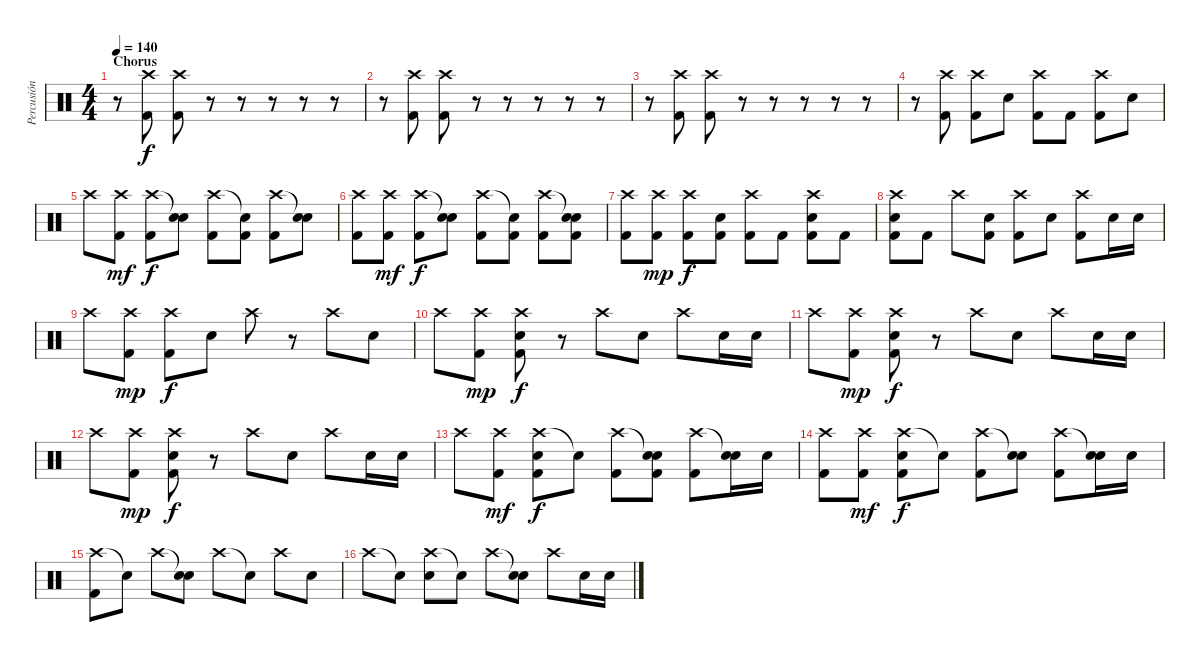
\track ("Percusión" "Percusión") {instrument percussion}
\staff {score}
\articulation defaults
\ts (4 4)
\section ("" "Chorus")
\tempo 140
\clef neutral
\ks c
r.8{dy f} ("Crash high (hit)" "Kick (hit) 2").8 ("Crash high (hit)" "Kick (hit) 2").8 r.8 r.8 r.8 r.8 r.8 |
r.8 ("Crash high (hit)" "Kick (hit) 2").8 ("Crash high (hit)" "Kick (hit) 2").8 r.8 r.8 r.8 r.8 r.8 |
r.8 ("Crash high (hit)" "Kick (hit) 2").8 ("Crash high (hit)" "Kick (hit) 2").8 r.8 r.8 r.8 r.8 r.8 |
r.8 ("Crash high (hit)" "Kick (hit) 2").8 ("Crash high (hit)" "Kick (hit) 2").8 "Electric Snare (hit)".8 ("Crash high (hit)" "Kick (hit) 2").8 "Kick (hit) 2".8 ("Crash high (hit)" "Kick (hit) 2").8 "Electric Snare (hit)".8 |
"Crash high (hit)".8 ("Crash high (hit)" "Kick (hit) 2").8{dy mf} ("Crash high (hit)" "Kick (hit) 2").8{dy f} ("Snare (hit)"{t} "Electric Snare (hit)").8 ("Crash high (hit)" "Kick (hit) 2").8 ("Snare (hit)"{t} "Kick (hit) 2").8 ("Crash high (hit)" "Kick (hit) 2").8 ("Snare (hit)"{t} "Electric Snare (hit)").8 |
("Crash high (hit)" "Kick (hit) 2").8 ("Crash high (hit)" "Kick (hit) 2").8{dy mf} ("Crash high (hit)" "Kick (hit) 2").8{dy f} ("Snare (hit)"{t} "Electric Snare (hit)").8 ("Crash high (hit)" "Kick (hit) 2").8 ("Snare (hit)"{t} "Kick (hit) 2").8 ("Crash high (hit)" "Kick (hit) 2").8 ("Snare (hit)"{t} "Electric Snare (hit)" "Kick (hit) 2").8 |
("Crash high (hit)" "Kick (hit) 2").8 ("Crash high (hit)" "Kick (hit) 2").8{dy mp} ("Crash high (hit)" "Kick (hit) 2").8{dy f} ("Electric Snare (hit)" "Kick (hit) 2").8 ("Crash high (hit)" "Kick (hit) 2").8 "Kick (hit) 2".8 ("Crash high (hit)" "Electric Snare (hit)" "Kick (hit) 2").8 "Kick (hit) 2".8 |
("Crash high (hit)" "Electric Snare (hit)" "Kick (hit) 2").8 "Kick (hit) 2".8 "Crash high (hit)".8 ("Electric Snare (hit)" "Kick (hit) 2").8 ("Crash high (hit)" "Kick (hit) 2").8 "Electric Snare (hit)".8 ("Crash high (hit)" "Kick (hit) 2").8 "Electric Snare (hit)".16 "Electric Snare (hit)".16 |
"Crash high (hit)".8 ("Crash high (hit)" "Kick (hit) 2").8{dy mp} ("Crash high (hit)" "Kick (hit) 2").8{dy f} "Electric Snare (hit)".8 "Crash high (hit)".8 r.8 "Crash high (hit)".8 "Electric Snare (hit)".8 |
"Crash high (hit)".8 ("Crash high (hit)" "Kick (hit) 2").8{dy mp} ("Crash high (hit)" "Electric Snare (hit)" "Kick (hit) 2").8{dy f} r.8 "Crash high (hit)".8 "Electric Snare (hit)".8 "Crash high (hit)".8 "Electric Snare (hit)".16 "Electric Snare (hit)".16 |
"Crash high (hit)".8 ("Crash high (hit)" "Kick (hit) 2").8{dy mp} ("Crash high (hit)" "Electric Snare (hit)" "Kick (hit) 2").8{dy f} r.8 "Crash high (hit)".8 "Electric Snare (hit)".8 "Crash high (hit)".8 "Electric Snare (hit)".16 "Electric Snare (hit)".16 |
"Crash high (hit)".8 ("Crash high (hit)" "Kick (hit) 2").8{dy mp} ("Crash high (hit)" "Electric Snare (hit)" "Kick (hit) 2").8{dy f} r.8 "Crash high (hit)".8 "Electric Snare (hit)".8 "Crash high (hit)".8 "Electric Snare (hit)".16 "Electric Snare (hit)".16 |
"Crash high (hit)".8 ("Crash high (hit)" "Kick (hit) 2").8{dy mf} ("Crash high (hit)" "Electric Snare (hit)" "Kick (hit) 2").8{dy f} "Snare (hit)"{t}.8 ("Crash high (hit)" "Kick (hit) 2").8 ("Snare (hit)"{t} "Electric Snare (hit)" "Kick (hit) 2").8 ("Crash high (hit)" "Kick (hit) 2").8 ("Snare (hit)"{t} "Electric Snare (hit)").16 "Electric Snare (hit)".16 |
("Crash high (hit)" "Kick (hit) 2").8 ("Crash high (hit)" "Kick (hit) 2").8{dy mf} ("Crash high (hit)" "Electric Snare (hit)" "Kick (hit) 2").8{dy f} "Snare (hit)"{t}.8 ("Crash high (hit)" "Kick (hit) 2").8 ("Snare (hit)"{t} "Electric Snare (hit)").8 ("Crash high (hit)" "Kick (hit) 2").8 ("Snare (hit)"{t} "Electric Snare (hit)").16 "Electric Snare (hit)".16 |
("Crash high (hit)" "Kick (hit) 2").8 "Snare (hit)"{t}.8 "Crash high (hit)".8 ("Snare (hit)"{t} "Electric Snare (hit)").8 "Crash high (hit)".8 "Snare (hit)"{t}.8 "Crash high (hit)".8 "Electric Snare (hit)".8 |
"Crash high (hit)".8 "Snare (hit)"{t}.8 ("Crash high (hit)" "Electric Snare (hit)").8 "Snare (hit)"{t}.8 "Crash high (hit)".8 ("Snare (hit)"{t} "Electric Snare (hit)").8 "Crash high (hit)".8 "Electric Snare (hit)".16 "Electric Snare (hit)".16
